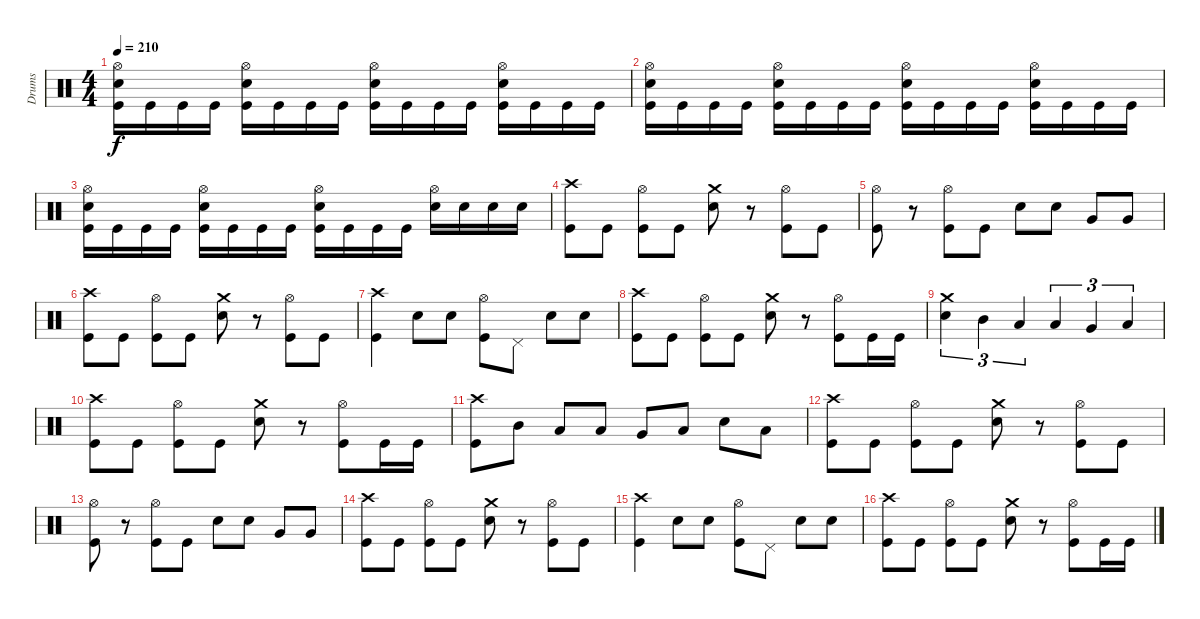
\track ("Drums" "Drums") {instrument percussion}
\staff {score}
\articulation defaults
\ts (4 4)
\tempo 210
\clef neutral
\ks c
("Hi-Hat (open)" "Snare (hit) 2" "Kick (hit)").16{dy f} "Kick (hit)".16 "Kick (hit)".16 "Kick (hit)".16 ("Hi-Hat (open)" "Snare (hit) 2" "Kick (hit)").16 "Kick (hit)".16 "Kick (hit)".16 "Kick (hit)".16 ("Hi-Hat (open)" "Snare (hit) 2" "Kick (hit)").16 "Kick (hit)".16 "Kick (hit)".16 "Kick (hit)".16 ("Hi-Hat (open)" "Snare (hit) 2" "Kick (hit)").16 "Kick (hit)".16 "Kick (hit)".16 "Kick (hit)".16 |
("Hi-Hat (open)" "Snare (hit) 2" "Kick (hit)").16 "Kick (hit)".16 "Kick (hit)".16 "Kick (hit)".16 ("Hi-Hat (open)" "Snare (hit) 2" "Kick (hit)").16 "Kick (hit)".16 "Kick (hit)".16 "Kick (hit)".16 ("Hi-Hat (open)" "Snare (hit) 2" "Kick (hit)").16 "Kick (hit)".16 "Kick (hit)".16 "Kick (hit)".16 ("Hi-Hat (open)" "Snare (hit) 2" "Kick (hit)").16 "Kick (hit)".16 "Kick (hit)".16 "Kick (hit)".16 |
("Hi-Hat (open)" "Snare (hit) 2" "Kick (hit)").16 "Kick (hit)".16 "Kick (hit)".16 "Kick (hit)".16 ("Hi-Hat (open)" "Snare (hit) 2" "Kick (hit)").16 "Kick (hit)".16 "Kick (hit)".16 "Kick (hit)".16 ("Hi-Hat (open)" "Snare (hit) 2" "Kick (hit)").16 "Kick (hit)".16 "Kick (hit)".16 "Kick (hit)".16 ("Hi-Hat (open)" "Snare (hit) 2").16 "Snare (hit) 2".16 "Snare (hit) 2".16 "Snare (hit) 2".16 |
("Crash high (hit)" "Kick (hit)").8 "Kick (hit)".8 ("Hi-Hat (open)" "Kick (hit)").8 "Kick (hit)".8 ("Crash medium (hit)" "Snare (hit) 2").8 r.8 ("Hi-Hat (open)" "Kick (hit)").8 "Kick (hit)".8 |
("Hi-Hat (open)" "Kick (hit)").8 r.8 ("Hi-Hat (open)" "Kick (hit)").8 "Kick (hit)".8 "Snare (hit) 2".8 "Snare (hit) 2".8 "Very Low Tom (hit)".8 "Very Low Tom (hit)".8 |
("Crash high (hit)" "Kick (hit)").8 "Kick (hit)".8 ("Hi-Hat (open)" "Kick (hit)").8 "Kick (hit)".8 ("Crash medium (hit)" "Snare (hit) 2").8 r.8 ("Hi-Hat (open)" "Kick (hit)").8 "Kick (hit)".8 |
("Crash high (hit)" "Kick (hit)").4 "Snare (hit) 2".8 "Snare (hit) 2".8 ("Hi-Hat (open)" "Kick (hit)").8 "Pedal Hi-Hat (hit)".8 "Snare (hit) 2".8 "Snare (hit) 2".8 |
("Crash high (hit)" "Kick (hit)").8 "Kick (hit)".8 ("Hi-Hat (open)" "Kick (hit)").8 "Kick (hit)".8 ("Crash medium (hit)" "Snare (hit) 2").8 r.8 ("Hi-Hat (open)" "Kick (hit)").8 "Kick (hit)".16 "Kick (hit)".16 |
("Crash medium (hit)" "Snare (hit) 2").4{tu (3 2)} "Mid Tom (hit)".4{tu (3 2)} "Low Tom (hit)".4{tu (3 2)} "Low Tom (hit)".4{tu (3 2)} "Very Low Tom (hit)".4{tu (3 2)} "Low Floor Tom (hit)".4{tu (3 2)} |
("Crash high (hit)" "Kick (hit)").8 "Kick (hit)".8 ("Hi-Hat (open)" "Kick (hit)").8 "Kick (hit)".8 ("Crash medium (hit)" "Snare (hit) 2").8 r.8 ("Hi-Hat (open)" "Kick (hit)").8 "Kick (hit)".16 "Kick (hit)".16 |
("Crash high (hit)" "Kick (hit)").8 "Mid Tom (hit)".8 "Low Tom (hit)".8 "Low Tom (hit)".8 "Very Low Tom (hit)".8 "Low Floor Tom (hit)".8 "Snare (hit) 2".8 "Low Floor Tom (hit)".8 |
("Crash high (hit)" "Kick (hit)").8 "Kick (hit)".8 ("Hi-Hat (open)" "Kick (hit)").8 "Kick (hit)".8 ("Crash medium (hit)" "Snare (hit) 2").8 r.8 ("Hi-Hat (open)" "Kick (hit)").8 "Kick (hit)".8 |
("Hi-Hat (open)" "Kick (hit)").8 r.8 ("Hi-Hat (open)" "Kick (hit)").8 "Kick (hit)".8 "Snare (hit) 2".8 "Snare (hit) 2".8 "Very Low Tom (hit)".8 "Very Low Tom (hit)".8 |
("Crash high (hit)" "Kick (hit)").8 "Kick (hit)".8 ("Hi-Hat (open)" "Kick (hit)").8 "Kick (hit)".8 ("Crash medium (hit)" "Snare (hit) 2").8 r.8 ("Hi-Hat (open)" "Kick (hit)").8 "Kick (hit)".8 |
("Crash high (hit)" "Kick (hit)").4 "Snare (hit) 2".8 "Snare (hit) 2".8 ("Hi-Hat (open)" "Kick (hit)").8 "Pedal Hi-Hat (hit)".8 "Snare (hit) 2".8 "Snare (hit) 2".8 |
("Crash high (hit)" "Kick (hit)").8 "Kick (hit)".8 ("Hi-Hat (open)" "Kick (hit)").8 "Kick (hit)".8 ("Crash medium (hit)" "Snare (hit) 2").8 r.8 ("Hi-Hat (open)" "Kick (hit)").8 "Kick (hit)".16 "Kick (hit)".16
